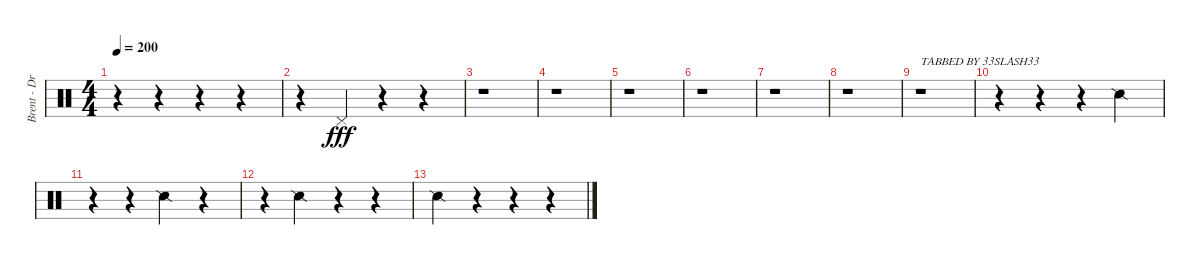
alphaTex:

\track ("Brent - Drums" "Brent - Dr") {instrument percussion}
\staff {score}
\articulation defaults
\ts (4 4)
\tempo 200
\clef neutral
\ks c
r.4{dy fff} r.4 r.4 r.4 |
r.4 "Pedal Hi-Hat (hit)".4 r.4 r.4 |
r.1 |
r.1 |
r.1 |
r.1 |
r.1 |
r.1 |
r.1{txt "TABBED BY 33SLASH33"} |
r.4 r.4 r.4 "Snare (side stick) 2".4 |
r.4 r.4 "Snare (side stick) 2".4 r.4 |
r.4 "Snare (side stick) 2".4 r.4 r.4 |
"Snare (side stick) 2".4 r.4 r.4 r.4
